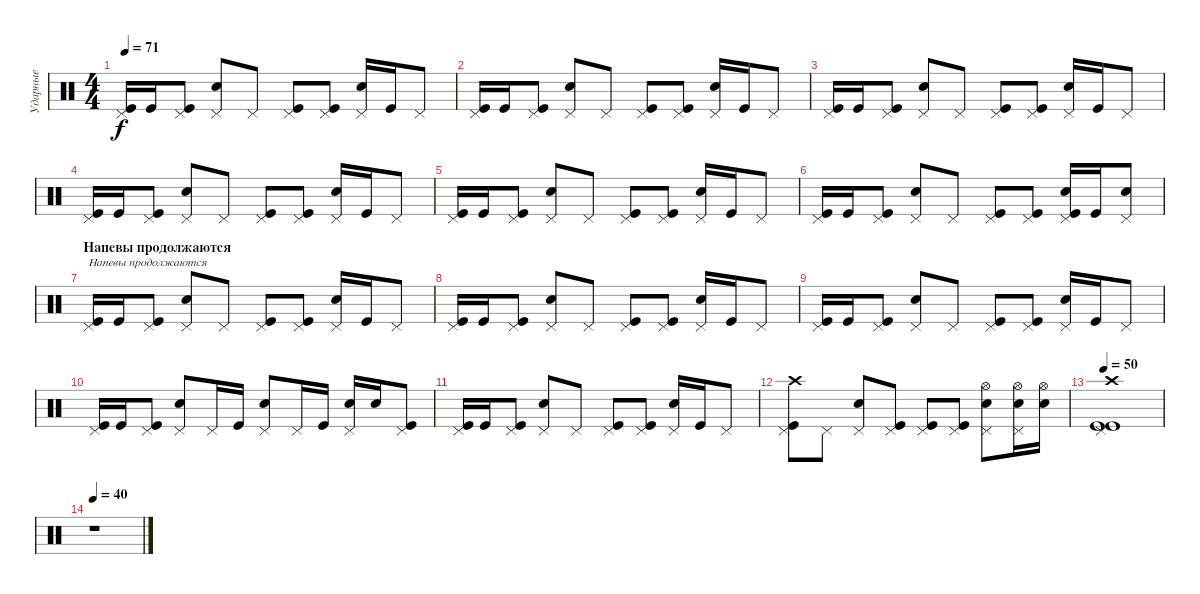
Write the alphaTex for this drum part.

\track ("Ударные" "Ударные") {instrument percussion}
\staff {score}
\articulation defaults
\ts (4 4)
\tempo 71
\clef neutral
\ks c
("Kick (hit)" "Pedal Hi-Hat (hit)").16{dy f} "Kick (hit)".16 ("Kick (hit)" "Pedal Hi-Hat (hit)").8 ("Snare (hit) 2" "Pedal Hi-Hat (hit)").8 "Pedal Hi-Hat (hit)".8 ("Kick (hit)" "Pedal Hi-Hat (hit)").8 ("Kick (hit)" "Pedal Hi-Hat (hit)").8 ("Snare (hit) 2" "Pedal Hi-Hat (hit)").16 "Kick (hit)".16 "Pedal Hi-Hat (hit)".8 |
("Kick (hit)" "Pedal Hi-Hat (hit)").16 "Kick (hit)".16 ("Kick (hit)" "Pedal Hi-Hat (hit)").8 ("Snare (hit) 2" "Pedal Hi-Hat (hit)").8 "Pedal Hi-Hat (hit)".8 ("Kick (hit)" "Pedal Hi-Hat (hit)").8 ("Kick (hit)" "Pedal Hi-Hat (hit)").8 ("Snare (hit) 2" "Pedal Hi-Hat (hit)").16 "Kick (hit)".16 "Pedal Hi-Hat (hit)".8 |
("Kick (hit)" "Pedal Hi-Hat (hit)").16 "Kick (hit)".16 ("Kick (hit)" "Pedal Hi-Hat (hit)").8 ("Snare (hit) 2" "Pedal Hi-Hat (hit)").8 "Pedal Hi-Hat (hit)".8 ("Kick (hit)" "Pedal Hi-Hat (hit)").8 ("Kick (hit)" "Pedal Hi-Hat (hit)").8 ("Snare (hit) 2" "Pedal Hi-Hat (hit)").16 "Kick (hit)".16 "Pedal Hi-Hat (hit)".8 |
("Kick (hit)" "Pedal Hi-Hat (hit)").16 "Kick (hit)".16 ("Kick (hit)" "Pedal Hi-Hat (hit)").8 ("Snare (hit) 2" "Pedal Hi-Hat (hit)").8 "Pedal Hi-Hat (hit)".8 ("Kick (hit)" "Pedal Hi-Hat (hit)").8 ("Kick (hit)" "Pedal Hi-Hat (hit)").8 ("Snare (hit) 2" "Pedal Hi-Hat (hit)").16 "Kick (hit)".16 "Pedal Hi-Hat (hit)".8 |
("Kick (hit)" "Pedal Hi-Hat (hit)").16 "Kick (hit)".16 ("Kick (hit)" "Pedal Hi-Hat (hit)").8 ("Snare (hit) 2" "Pedal Hi-Hat (hit)").8 "Pedal Hi-Hat (hit)".8 ("Kick (hit)" "Pedal Hi-Hat (hit)").8 ("Kick (hit)" "Pedal Hi-Hat (hit)").8 ("Snare (hit) 2" "Pedal Hi-Hat (hit)").16 "Kick (hit)".16 "Pedal Hi-Hat (hit)".8 |
("Kick (hit)" "Pedal Hi-Hat (hit)").16 "Kick (hit)".16 ("Kick (hit)" "Pedal Hi-Hat (hit)").8 ("Snare (hit) 2" "Pedal Hi-Hat (hit)").8 "Pedal Hi-Hat (hit)".8 ("Kick (hit)" "Pedal Hi-Hat (hit)").8 ("Kick (hit)" "Pedal Hi-Hat (hit)").8 ("Kick (hit)" "Snare (hit) 2" "Pedal Hi-Hat (hit)").16 "Kick (hit)".16 ("Snare (hit) 2" "Pedal Hi-Hat (hit)").8 |
\section ("" "Напевы продолжаются")
("Kick (hit)" "Pedal Hi-Hat (hit)").16{txt "Напевы продолжаются"} "Kick (hit)".16 ("Kick (hit)" "Pedal Hi-Hat (hit)").8 ("Snare (hit) 2" "Pedal Hi-Hat (hit)").8 "Pedal Hi-Hat (hit)".8 ("Kick (hit)" "Pedal Hi-Hat (hit)").8 ("Kick (hit)" "Pedal Hi-Hat (hit)").8 ("Snare (hit) 2" "Pedal Hi-Hat (hit)").16 "Kick (hit)".16 "Pedal Hi-Hat (hit)".8 |
("Kick (hit)" "Pedal Hi-Hat (hit)").16 "Kick (hit)".16 ("Kick (hit)" "Pedal Hi-Hat (hit)").8 ("Snare (hit) 2" "Pedal Hi-Hat (hit)").8 "Pedal Hi-Hat (hit)".8 ("Kick (hit)" "Pedal Hi-Hat (hit)").8 ("Kick (hit)" "Pedal Hi-Hat (hit)").8 ("Snare (hit) 2" "Pedal Hi-Hat (hit)").16 "Kick (hit)".16 "Pedal Hi-Hat (hit)".8 |
("Kick (hit)" "Pedal Hi-Hat (hit)").16 "Kick (hit)".16 ("Kick (hit)" "Pedal Hi-Hat (hit)").8 ("Snare (hit) 2" "Pedal Hi-Hat (hit)").8 "Pedal Hi-Hat (hit)".8 ("Kick (hit)" "Pedal Hi-Hat (hit)").8 ("Kick (hit)" "Pedal Hi-Hat (hit)").8 ("Snare (hit) 2" "Pedal Hi-Hat (hit)").16 "Kick (hit)".16 "Pedal Hi-Hat (hit)".8 |
("Kick (hit)" "Pedal Hi-Hat (hit)").16 "Kick (hit)".16 ("Kick (hit)" "Pedal Hi-Hat (hit)").8 ("Snare (hit) 2" "Pedal Hi-Hat (hit)").8 "Pedal Hi-Hat (hit)".16 "Kick (hit)".16 ("Snare (hit) 2" "Pedal Hi-Hat (hit)").8 "Pedal Hi-Hat (hit)".16 "Kick (hit)".16 ("Snare (hit) 2" "Pedal Hi-Hat (hit)").16 "Snare (hit) 2".16 ("Kick (hit)" "Pedal Hi-Hat (hit)").8 |
("Kick (hit)" "Pedal Hi-Hat (hit)").16 "Kick (hit)".16 ("Kick (hit)" "Pedal Hi-Hat (hit)").8 ("Snare (hit) 2" "Pedal Hi-Hat (hit)").8 "Pedal Hi-Hat (hit)".8 ("Kick (hit)" "Pedal Hi-Hat (hit)").8 ("Kick (hit)" "Pedal Hi-Hat (hit)").8 ("Snare (hit) 2" "Pedal Hi-Hat (hit)").16 "Kick (hit)".16 "Pedal Hi-Hat (hit)".8 |
("Crash high (hit)" "Kick (hit)" "Pedal Hi-Hat (hit)").8 "Pedal Hi-Hat (hit)".8 ("Snare (hit) 2" "Pedal Hi-Hat (hit)").8 ("Kick (hit)" "Pedal Hi-Hat (hit)").8 ("Kick (hit)" "Pedal Hi-Hat (hit)").8 ("Kick (hit)" "Pedal Hi-Hat (hit)").8 ("Hi-Hat (open)" "Snare (hit) 2" "Pedal Hi-Hat (hit)").8 ("Hi-Hat (open)" "Snare (hit) 2" "Pedal Hi-Hat (hit)").16 ("Hi-Hat (open)" "Snare (hit) 2").16 |
\tempo 50
("Crash high (hit)" "Kick (hit)" "Kick (hit)" "Pedal Hi-Hat (hit)").1 |
\tempo 40
r.1
